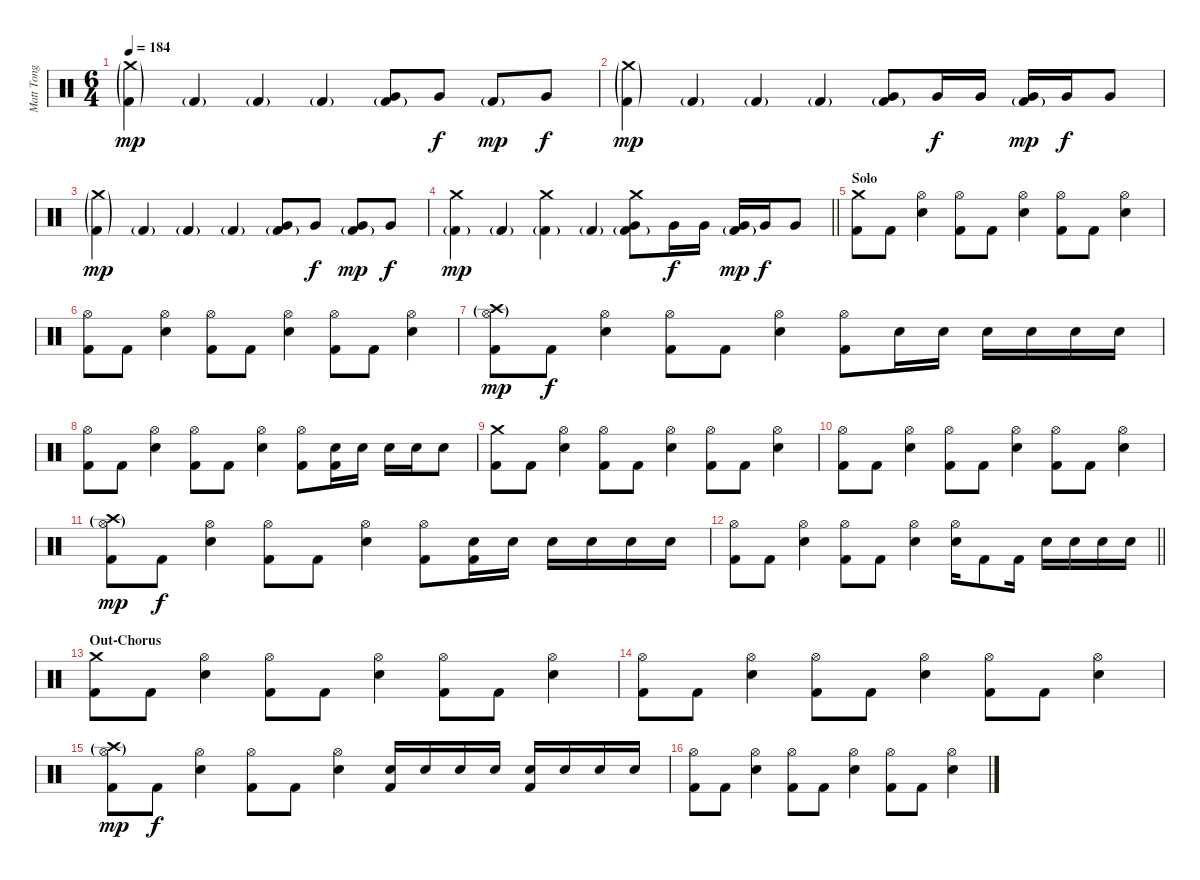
\track ("Matt Tong" "Matt Tong") {instrument percussion}
\staff {score}
\articulation defaults
\ts (6 4)
\tempo 184
\clef neutral
\ks c
("Crash medium (hit)"{g} "Kick (hit) 2"{g}).4{dy mp} "Kick (hit) 2"{g}.4 "Kick (hit) 2"{g}.4 "Kick (hit) 2"{g}.4 ("Very Low Tom (hit)" "Kick (hit) 2"{g}).8 "Very Low Tom (hit)".8{dy f} "Kick (hit) 2"{g}.8{dy mp} "Very Low Tom (hit)".8{dy f} |
("Crash medium (hit)"{g} "Kick (hit) 2"{g}).4{dy mp} "Kick (hit) 2"{g}.4 "Kick (hit) 2"{g}.4 "Kick (hit) 2"{g}.4 ("Very Low Tom (hit)" "Kick (hit) 2"{g}).8 "Very Low Tom (hit)".16{dy f} "Very Low Tom (hit)".16 ("Very Low Tom (hit)" "Kick (hit) 2"{g}).16{dy mp} "Very Low Tom (hit)".16{dy f} "Very Low Tom (hit)".8 |
("Crash medium (hit)"{g} "Kick (hit) 2"{g}).4{dy mp} "Kick (hit) 2"{g}.4 "Kick (hit) 2"{g}.4 "Kick (hit) 2"{g}.4 ("Very Low Tom (hit)" "Kick (hit) 2"{g}).8 "Very Low Tom (hit)".8{dy f} ("Very Low Tom (hit)" "Kick (hit) 2"{g}).8{dy mp} "Very Low Tom (hit)".8{dy f} |
\barLineRight lightlight
("Crash medium (hit)" "Kick (hit) 2"{g}).4{dy mp} "Kick (hit) 2"{g}.4 ("Crash medium (hit)" "Kick (hit) 2"{g}).4 "Kick (hit) 2"{g}.4 ("Crash medium (hit)" "Very Low Tom (hit)" "Kick (hit) 2"{g}).8 "Very Low Tom (hit)".16{dy f} "Very Low Tom (hit)".16 ("Very Low Tom (hit)" "Kick (hit) 2"{g}).16{dy mp} "Very Low Tom (hit)".16{dy f} "Very Low Tom (hit)".8 |
\section ("" "Solo")
("Crash medium (hit)" "Kick (hit) 2").8 "Kick (hit) 2".8 ("Hi-Hat (open)" "Electric Snare (hit)").4 ("Hi-Hat (open)" "Kick (hit) 2").8 "Kick (hit) 2".8 ("Hi-Hat (open)" "Electric Snare (hit)").4 ("Hi-Hat (open)" "Kick (hit) 2").8 "Kick (hit) 2".8 ("Hi-Hat (open)" "Electric Snare (hit)").4 |
("Hi-Hat (open)" "Kick (hit) 2").8 "Kick (hit) 2".8 ("Hi-Hat (open)" "Electric Snare (hit)").4 ("Hi-Hat (open)" "Kick (hit) 2").8 "Kick (hit) 2".8 ("Hi-Hat (open)" "Electric Snare (hit)").4 ("Hi-Hat (open)" "Kick (hit) 2").8 "Kick (hit) 2".8 ("Hi-Hat (open)" "Electric Snare (hit)").4 |
("Crash high (hit)"{g} "Hi-Hat (open)"{g} "Kick (hit) 2").8{dy mp} "Kick (hit) 2".8{dy f} ("Hi-Hat (open)" "Electric Snare (hit)").4 ("Hi-Hat (open)" "Kick (hit) 2").8 "Kick (hit) 2".8 ("Hi-Hat (open)" "Electric Snare (hit)").4 ("Hi-Hat (open)" "Kick (hit) 2").8 "Electric Snare (hit)".16 "Electric Snare (hit)".16 "Electric Snare (hit)".16 "Electric Snare (hit)".16 "Electric Snare (hit)".16 "Electric Snare (hit)".16 |
("Hi-Hat (open)" "Kick (hit) 2").8 "Kick (hit) 2".8 ("Hi-Hat (open)" "Electric Snare (hit)").4 ("Hi-Hat (open)" "Kick (hit) 2").8 "Kick (hit) 2".8 ("Hi-Hat (open)" "Electric Snare (hit)").4 ("Hi-Hat (open)" "Kick (hit) 2").8 ("Electric Snare (hit)" "Kick (hit) 2").16 "Electric Snare (hit)".16 "Electric Snare (hit)".16 "Electric Snare (hit)".16 "Electric Snare (hit)".8 |
("Crash medium (hit)" "Kick (hit) 2").8 "Kick (hit) 2".8 ("Hi-Hat (open)" "Electric Snare (hit)").4 ("Hi-Hat (open)" "Kick (hit) 2").8 "Kick (hit) 2".8 ("Hi-Hat (open)" "Electric Snare (hit)").4 ("Hi-Hat (open)" "Kick (hit) 2").8 "Kick (hit) 2".8 ("Hi-Hat (open)" "Electric Snare (hit)").4 |
("Hi-Hat (open)" "Kick (hit) 2").8 "Kick (hit) 2".8 ("Hi-Hat (open)" "Electric Snare (hit)").4 ("Hi-Hat (open)" "Kick (hit) 2").8 "Kick (hit) 2".8 ("Hi-Hat (open)" "Electric Snare (hit)").4 ("Hi-Hat (open)" "Kick (hit) 2").8 "Kick (hit) 2".8 ("Hi-Hat (open)" "Electric Snare (hit)").4 |
("Crash high (hit)"{g} "Hi-Hat (open)"{g} "Kick (hit) 2").8{dy mp} "Kick (hit) 2".8{dy f} ("Hi-Hat (open)" "Electric Snare (hit)").4 ("Hi-Hat (open)" "Kick (hit) 2").8 "Kick (hit) 2".8 ("Hi-Hat (open)" "Electric Snare (hit)").4 ("Hi-Hat (open)" "Kick (hit) 2").8 ("Electric Snare (hit)" "Kick (hit) 2").16 "Electric Snare (hit)".16 "Electric Snare (hit)".16 "Electric Snare (hit)".16 "Electric Snare (hit)".16 "Electric Snare (hit)".16 |
\barLineRight lightlight
("Hi-Hat (open)" "Kick (hit) 2").8 "Kick (hit) 2".8 ("Hi-Hat (open)" "Electric Snare (hit)").4 ("Hi-Hat (open)" "Kick (hit) 2").8 "Kick (hit) 2".8 ("Hi-Hat (open)" "Electric Snare (hit)").4 ("Hi-Hat (open)" "Electric Snare (hit)").16 "Kick (hit) 2".8 "Kick (hit) 2".16 "Electric Snare (hit)".16 "Electric Snare (hit)".16 "Electric Snare (hit)".16 "Electric Snare (hit)".16 |
\section ("" "Out-Chorus")
("Crash medium (hit)" "Kick (hit) 2").8 "Kick (hit) 2".8 ("Hi-Hat (open)" "Electric Snare (hit)").4 ("Hi-Hat (open)" "Kick (hit) 2").8 "Kick (hit) 2".8 ("Hi-Hat (open)" "Electric Snare (hit)").4 ("Hi-Hat (open)" "Kick (hit) 2").8 "Kick (hit) 2".8 ("Hi-Hat (open)" "Electric Snare (hit)").4 |
("Hi-Hat (open)" "Kick (hit) 2").8 "Kick (hit) 2".8 ("Hi-Hat (open)" "Electric Snare (hit)").4 ("Hi-Hat (open)" "Kick (hit) 2").8 "Kick (hit) 2".8 ("Hi-Hat (open)" "Electric Snare (hit)").4 ("Hi-Hat (open)" "Kick (hit) 2").8 "Kick (hit) 2".8 ("Hi-Hat (open)" "Electric Snare (hit)").4 |
("Crash high (hit)"{g} "Hi-Hat (open)"{g} "Kick (hit) 2").8{dy mp} "Kick (hit) 2".8{dy f} ("Hi-Hat (open)" "Electric Snare (hit)").4 ("Hi-Hat (open)" "Kick (hit) 2").8 "Kick (hit) 2".8 ("Hi-Hat (open)" "Electric Snare (hit)").4 ("Electric Snare (hit)" "Kick (hit) 2").16 "Electric Snare (hit)".16 "Electric Snare (hit)".16 "Electric Snare (hit)".16 ("Electric Snare (hit)" "Kick (hit) 2").16 "Electric Snare (hit)".16 "Electric Snare (hit)".16 "Electric Snare (hit)".16 |
("Hi-Hat (open)" "Kick (hit) 2").8 "Kick (hit) 2".8 ("Hi-Hat (open)" "Electric Snare (hit)").4 ("Hi-Hat (open)" "Kick (hit) 2").8 "Kick (hit) 2".8 ("Hi-Hat (open)" "Electric Snare (hit)").4 ("Hi-Hat (open)" "Kick (hit) 2").8 "Kick (hit) 2".8 ("Hi-Hat (open)" "Electric Snare (hit)").4
